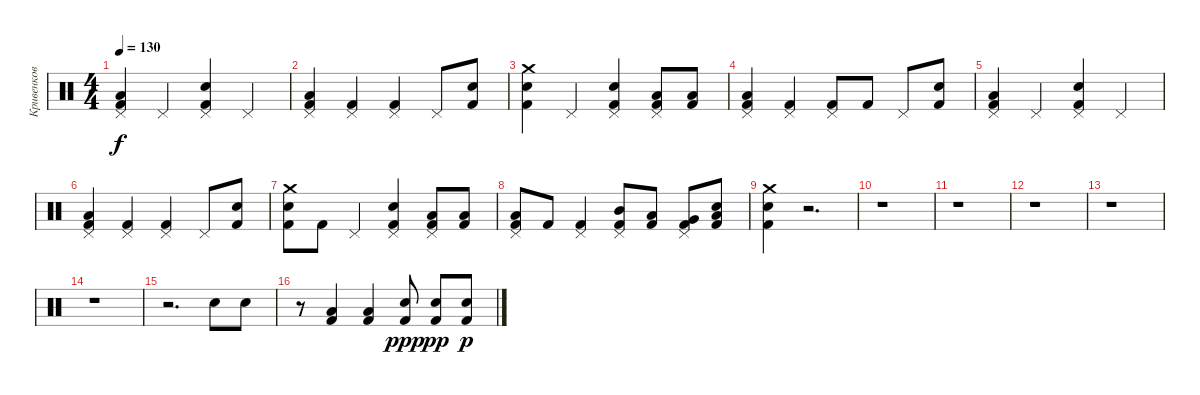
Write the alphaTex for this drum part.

\track ("Кривенков Дмитрий" "Кривенков ") {instrument percussion}
\staff {score}
\articulation defaults
\ts (4 4)
\tempo 130
\clef neutral
\ks c
("Kick (hit) 2" "Pedal Hi-Hat (hit)" "Low Floor Tom (hit)").4{dy f} "Pedal Hi-Hat (hit)".4 ("Kick (hit) 2" "Pedal Hi-Hat (hit)" "Electric Snare (hit)").4 "Pedal Hi-Hat (hit)".4 |
("Kick (hit) 2" "Pedal Hi-Hat (hit)" "Low Floor Tom (hit)").4 ("Kick (hit) 2" "Pedal Hi-Hat (hit)").4 ("Kick (hit) 2" "Pedal Hi-Hat (hit)").4 "Pedal Hi-Hat (hit)".8 ("Electric Snare (hit)" "Kick (hit) 2").8 |
("Kick (hit) 2" "Electric Snare (hit)" "Crash medium (hit)").4 "Pedal Hi-Hat (hit)".4 ("Pedal Hi-Hat (hit)" "Kick (hit) 2" "Electric Snare (hit)").4 ("Kick (hit) 2" "Pedal Hi-Hat (hit)" "Low Floor Tom (hit)").8 ("Low Floor Tom (hit)" "Kick (hit) 2").8 |
("Kick (hit) 2" "Pedal Hi-Hat (hit)" "Low Floor Tom (hit)").4 ("Kick (hit) 2" "Pedal Hi-Hat (hit)").4 ("Kick (hit) 2" "Pedal Hi-Hat (hit)").8 "Kick (hit) 2".8 "Pedal Hi-Hat (hit)".8 ("Electric Snare (hit)" "Kick (hit) 2").8 |
("Kick (hit) 2" "Pedal Hi-Hat (hit)" "Low Floor Tom (hit)").4 "Pedal Hi-Hat (hit)".4 ("Kick (hit) 2" "Pedal Hi-Hat (hit)" "Electric Snare (hit)").4 "Pedal Hi-Hat (hit)".4 |
("Kick (hit) 2" "Pedal Hi-Hat (hit)" "Low Floor Tom (hit)").4 ("Kick (hit) 2" "Pedal Hi-Hat (hit)").4 ("Kick (hit) 2" "Pedal Hi-Hat (hit)").4 "Pedal Hi-Hat (hit)".8 ("Electric Snare (hit)" "Kick (hit) 2").8 |
("Kick (hit) 2" "Electric Snare (hit)" "Crash medium (hit)").8 "Kick (hit) 2".8 "Pedal Hi-Hat (hit)".4 ("Pedal Hi-Hat (hit)" "Kick (hit) 2" "Electric Snare (hit)").4 ("Kick (hit) 2" "Pedal Hi-Hat (hit)" "Low Floor Tom (hit)").8 ("Low Floor Tom (hit)" "Kick (hit) 2").8 |
("Kick (hit) 2" "Pedal Hi-Hat (hit)" "Low Floor Tom (hit)").8 "Kick (hit) 2".8 ("Kick (hit) 2" "Pedal Hi-Hat (hit)").4 ("Kick (hit) 2" "Pedal Hi-Hat (hit)" "Mid Tom (hit)").8 ("Kick (hit) 2" "Low Tom (hit)").8 ("Kick (hit) 2" "Pedal Hi-Hat (hit)" "Very Low Tom (hit)").8 ("Electric Snare (hit)" "Kick (hit) 2" "Low Floor Tom (hit)").8 |
("Kick (hit) 2" "Electric Snare (hit)" "Crash medium (hit)").4 r.2{d} |
r.1 |
r.1 |
r.1 |
r.1 |
r.1 |
r.2{d} "Electric Snare (hit)".8 "Electric Snare (hit)".8 |
r.8 ("Kick (hit) 2" "Low Floor Tom (hit)").4 ("Low Floor Tom (hit)" "Kick (hit) 2").4 ("Kick (hit) 2" "Electric Snare (hit)").8{dy ppp} ("Kick (hit) 2" "Electric Snare (hit)").8{dy pp} ("Kick (hit) 2" "Electric Snare (hit)").8{dy p}
